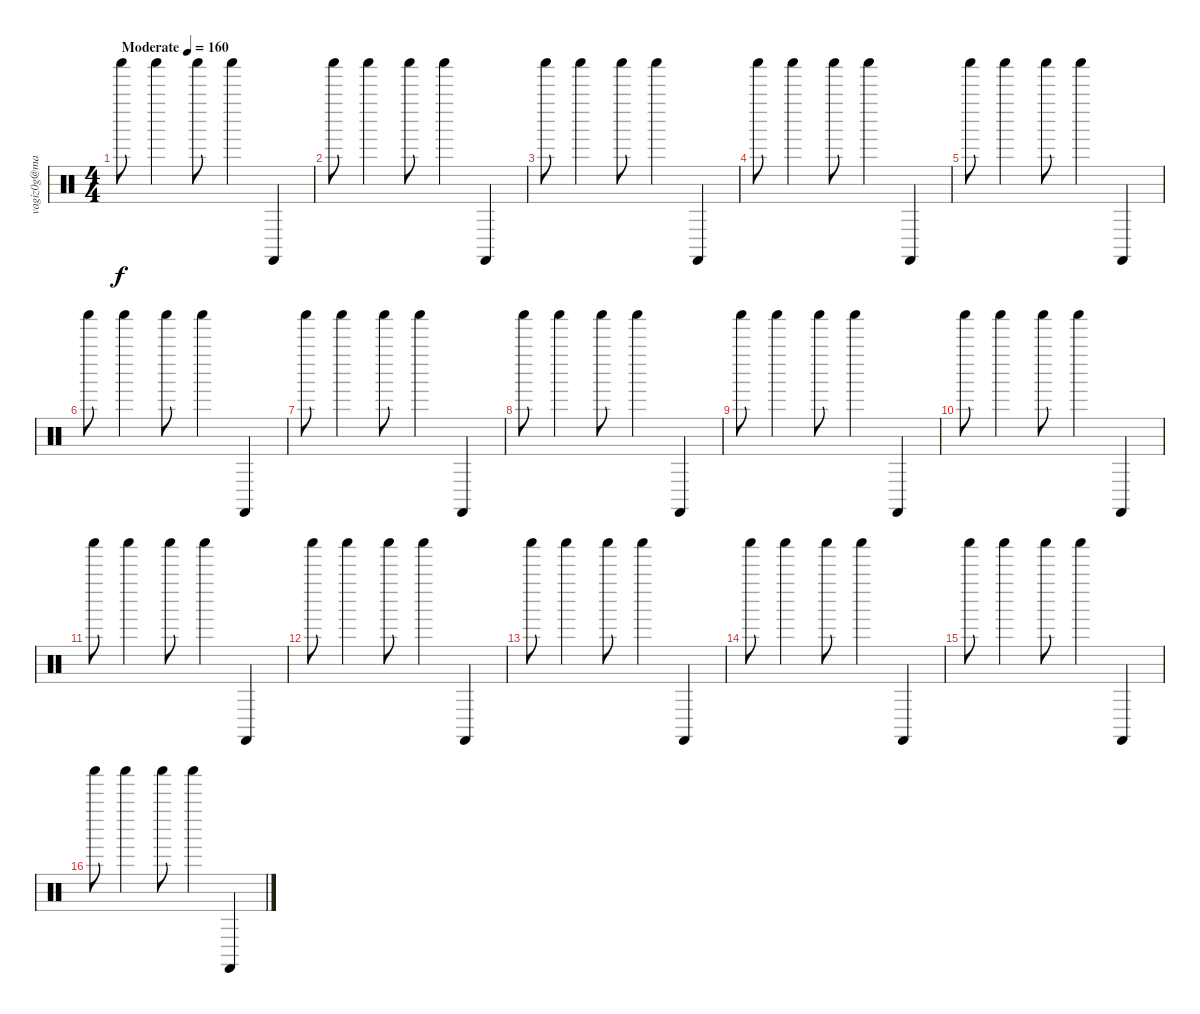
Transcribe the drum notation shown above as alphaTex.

\track ("vagiz0g@mail.ru" "vagiz0g@ma") {instrument percussion}
\staff {score}
\articulation defaults
\ts (4 4)
\tempo (160 "Moderate")
\clef neutral
\ks c "Shaker (hit)".8{dy f} "Shaker (hit)".4 "Shaker (hit)".8 "Shaker (hit)".4 "Castanets (hit)".4
|
"Shaker (hit)".8 "Shaker (hit)".4 "Shaker (hit)".8 "Shaker (hit)".4 "Castanets (hit)".4 |
"Shaker (hit)".8 "Shaker (hit)".4 "Shaker (hit)".8 "Shaker (hit)".4 "Castanets (hit)".4 |
"Shaker (hit)".8 "Shaker (hit)".4 "Shaker (hit)".8 "Shaker (hit)".4 "Castanets (hit)".4 |
"Shaker (hit)".8 "Shaker (hit)".4 "Shaker (hit)".8 "Shaker (hit)".4 "Castanets (hit)".4 |
"Shaker (hit)".8 "Shaker (hit)".4 "Shaker (hit)".8 "Shaker (hit)".4 "Castanets (hit)".4 |
"Shaker (hit)".8 "Shaker (hit)".4 "Shaker (hit)".8 "Shaker (hit)".4 "Castanets (hit)".4 |
"Shaker (hit)".8 "Shaker (hit)".4 "Shaker (hit)".8 "Shaker (hit)".4 "Castanets (hit)".4 |
"Shaker (hit)".8 "Shaker (hit)".4 "Shaker (hit)".8 "Shaker (hit)".4 "Castanets (hit)".4 |
"Shaker (hit)".8 "Shaker (hit)".4 "Shaker (hit)".8 "Shaker (hit)".4 "Castanets (hit)".4 |
"Shaker (hit)".8 "Shaker (hit)".4 "Shaker (hit)".8 "Shaker (hit)".4 "Castanets (hit)".4 |
"Shaker (hit)".8 "Shaker (hit)".4 "Shaker (hit)".8 "Shaker (hit)".4 "Castanets (hit)".4 |
"Shaker (hit)".8 "Shaker (hit)".4 "Shaker (hit)".8 "Shaker (hit)".4 "Castanets (hit)".4 |
"Shaker (hit)".8 "Shaker (hit)".4 "Shaker (hit)".8 "Shaker (hit)".4 "Castanets (hit)".4 |
"Shaker (hit)".8 "Shaker (hit)".4 "Shaker (hit)".8 "Shaker (hit)".4 "Castanets (hit)".4 |
"Shaker (hit)".8 "Shaker (hit)".4 "Shaker (hit)".8 "Shaker (hit)".4 "Castanets (hit)".4
